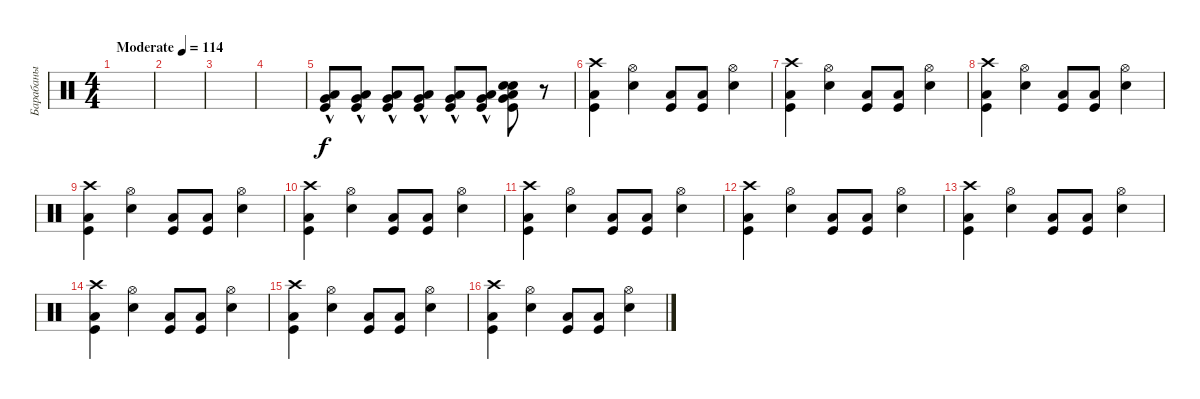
\track ("Барабаны" "Барабаны") {instrument percussion}
\staff {score}
\articulation defaults
\ts (4 4)
\tempo (114 "Moderate")
\clef neutral
\ks c
|
|
|
|
("Low Floor Tom (hit)"{hac} "Kick (hit)" "Very Low Tom (hit)").8 ("Low Floor Tom (hit)"{hac} "Kick (hit)" "Very Low Tom (hit)").8 ("Low Floor Tom (hit)"{hac} "Kick (hit)" "Very Low Tom (hit)").8 ("Low Floor Tom (hit)"{hac} "Kick (hit)" "Very Low Tom (hit)").8 ("Low Floor Tom (hit)"{hac} "Kick (hit)" "Very Low Tom (hit)").8 ("Low Floor Tom (hit)"{hac} "Kick (hit)" "Very Low Tom (hit)").8 ("Electric Snare (hit)" "Low Floor Tom (hit)" "Kick (hit)" "Very Low Tom (hit)" "Electric Snare (hit)").8 r.8 |
("Low Floor Tom (hit)" "Kick (hit)" "Crash high (hit)").4 ("Electric Snare (hit)" "Hi-Hat (open)").4 ("Low Floor Tom (hit)" "Kick (hit)").8 ("Low Floor Tom (hit)" "Kick (hit)").8 ("Electric Snare (hit)" "Hi-Hat (open)").4 |
("Low Floor Tom (hit)" "Kick (hit)" "Crash high (hit)").4 ("Electric Snare (hit)" "Hi-Hat (open)").4 ("Low Floor Tom (hit)" "Kick (hit)").8 ("Low Floor Tom (hit)" "Kick (hit)").8 ("Electric Snare (hit)" "Hi-Hat (open)").4 |
("Low Floor Tom (hit)" "Kick (hit)" "Crash high (hit)").4 ("Electric Snare (hit)" "Hi-Hat (open)").4 ("Low Floor Tom (hit)" "Kick (hit)").8 ("Low Floor Tom (hit)" "Kick (hit)").8 ("Electric Snare (hit)" "Hi-Hat (open)").4 |
("Low Floor Tom (hit)" "Kick (hit)" "Crash high (hit)").4 ("Electric Snare (hit)" "Hi-Hat (open)").4 ("Low Floor Tom (hit)" "Kick (hit)").8 ("Low Floor Tom (hit)" "Kick (hit)").8 ("Electric Snare (hit)" "Hi-Hat (open)").4 |
("Low Floor Tom (hit)" "Kick (hit)" "Crash high (hit)").4 ("Electric Snare (hit)" "Hi-Hat (open)").4 ("Low Floor Tom (hit)" "Kick (hit)").8 ("Low Floor Tom (hit)" "Kick (hit)").8 ("Electric Snare (hit)" "Hi-Hat (open)").4 |
("Low Floor Tom (hit)" "Kick (hit)" "Crash high (hit)").4 ("Electric Snare (hit)" "Hi-Hat (open)").4 ("Low Floor Tom (hit)" "Kick (hit)").8 ("Low Floor Tom (hit)" "Kick (hit)").8 ("Electric Snare (hit)" "Hi-Hat (open)").4 |
("Low Floor Tom (hit)" "Kick (hit)" "Crash high (hit)").4 ("Electric Snare (hit)" "Hi-Hat (open)").4 ("Low Floor Tom (hit)" "Kick (hit)").8 ("Low Floor Tom (hit)" "Kick (hit)").8 ("Electric Snare (hit)" "Hi-Hat (open)").4 |
("Low Floor Tom (hit)" "Kick (hit)" "Crash high (hit)").4 ("Electric Snare (hit)" "Hi-Hat (open)").4 ("Low Floor Tom (hit)" "Kick (hit)").8 ("Low Floor Tom (hit)" "Kick (hit)").8 ("Electric Snare (hit)" "Hi-Hat (open)").4 |
("Low Floor Tom (hit)" "Kick (hit)" "Crash high (hit)").4 ("Electric Snare (hit)" "Hi-Hat (open)").4 ("Low Floor Tom (hit)" "Kick (hit)").8 ("Low Floor Tom (hit)" "Kick (hit)").8 ("Electric Snare (hit)" "Hi-Hat (open)").4 |
("Low Floor Tom (hit)" "Kick (hit)" "Crash high (hit)").4 ("Electric Snare (hit)" "Hi-Hat (open)").4 ("Low Floor Tom (hit)" "Kick (hit)").8 ("Low Floor Tom (hit)" "Kick (hit)").8 ("Electric Snare (hit)" "Hi-Hat (open)").4 |
("Low Floor Tom (hit)" "Kick (hit)" "Crash high (hit)").4 ("Electric Snare (hit)" "Hi-Hat (open)").4 ("Low Floor Tom (hit)" "Kick (hit)").8 ("Low Floor Tom (hit)" "Kick (hit)").8 ("Electric Snare (hit)" "Hi-Hat (open)").4
